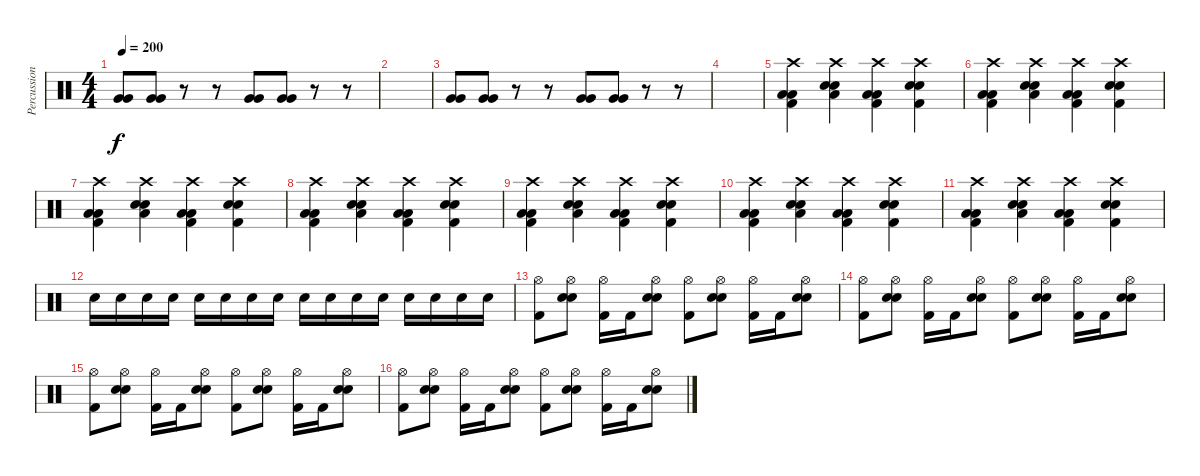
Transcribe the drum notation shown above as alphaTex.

\track ("Percussion" "Percussion") {instrument percussion}
\staff {score}
\articulation defaults
\ts (4 4)
\tempo 200
\clef neutral
\ks c
("Very Low Tom (hit)" "Very Low Tom (hit)").8{dy f} ("Very Low Tom (hit)" "Very Low Tom (hit)").8 r.8 r.8 ("Very Low Tom (hit)" "Very Low Tom (hit)").8 ("Very Low Tom (hit)" "Very Low Tom (hit)").8 r.8 r.8 |
|
("Very Low Tom (hit)" "Very Low Tom (hit)").8 ("Very Low Tom (hit)" "Very Low Tom (hit)").8 r.8 r.8 ("Very Low Tom (hit)" "Very Low Tom (hit)").8 ("Very Low Tom (hit)" "Very Low Tom (hit)").8 r.8 r.8 |
|
("Crash high (hit)" "Low Floor Tom (hit)" "Low Floor Tom (hit)" "Kick (hit) 2").4 ("Crash high (hit)" "Electric Snare (hit)" "Electric Snare (hit)" "Low Floor Tom (hit)").4 ("Crash high (hit)" "Low Floor Tom (hit)" "Low Floor Tom (hit)" "Kick (hit) 2").4 ("Crash high (hit)" "Electric Snare (hit)" "Electric Snare (hit)" "Kick (hit) 2").4 |
("Crash high (hit)" "Low Floor Tom (hit)" "Low Floor Tom (hit)" "Kick (hit) 2").4 ("Crash high (hit)" "Electric Snare (hit)" "Electric Snare (hit)" "Low Floor Tom (hit)").4 ("Crash high (hit)" "Low Floor Tom (hit)" "Low Floor Tom (hit)" "Kick (hit) 2").4 ("Crash high (hit)" "Electric Snare (hit)" "Electric Snare (hit)" "Kick (hit) 2").4 |
("Crash high (hit)" "Low Floor Tom (hit)" "Low Floor Tom (hit)" "Kick (hit) 2").4 ("Crash high (hit)" "Electric Snare (hit)" "Electric Snare (hit)" "Low Floor Tom (hit)").4 ("Crash high (hit)" "Low Floor Tom (hit)" "Low Floor Tom (hit)" "Kick (hit) 2").4 ("Crash high (hit)" "Electric Snare (hit)" "Electric Snare (hit)" "Kick (hit) 2").4 |
("Crash high (hit)" "Low Floor Tom (hit)" "Low Floor Tom (hit)" "Kick (hit) 2").4 ("Crash high (hit)" "Electric Snare (hit)" "Electric Snare (hit)" "Low Floor Tom (hit)").4 ("Crash high (hit)" "Low Floor Tom (hit)" "Low Floor Tom (hit)" "Kick (hit) 2").4 ("Crash high (hit)" "Electric Snare (hit)" "Electric Snare (hit)" "Kick (hit) 2").4 |
("Crash high (hit)" "Low Floor Tom (hit)" "Low Floor Tom (hit)" "Kick (hit) 2").4 ("Crash high (hit)" "Electric Snare (hit)" "Electric Snare (hit)" "Low Floor Tom (hit)").4 ("Crash high (hit)" "Low Floor Tom (hit)" "Low Floor Tom (hit)" "Kick (hit) 2").4 ("Crash high (hit)" "Electric Snare (hit)" "Electric Snare (hit)" "Kick (hit) 2").4 |
("Crash high (hit)" "Low Floor Tom (hit)" "Low Floor Tom (hit)" "Kick (hit) 2").4 ("Crash high (hit)" "Electric Snare (hit)" "Electric Snare (hit)" "Low Floor Tom (hit)").4 ("Crash high (hit)" "Low Floor Tom (hit)" "Low Floor Tom (hit)" "Kick (hit) 2").4 ("Crash high (hit)" "Electric Snare (hit)" "Electric Snare (hit)" "Kick (hit) 2").4 |
("Crash high (hit)" "Low Floor Tom (hit)" "Low Floor Tom (hit)" "Kick (hit) 2").4 ("Crash high (hit)" "Electric Snare (hit)" "Electric Snare (hit)" "Low Floor Tom (hit)").4 ("Crash high (hit)" "Low Floor Tom (hit)" "Low Floor Tom (hit)" "Kick (hit) 2").4 ("Crash high (hit)" "Electric Snare (hit)" "Electric Snare (hit)" "Kick (hit) 2").4 |
"Electric Snare (hit)".16 "Electric Snare (hit)".16 "Electric Snare (hit)".16 "Electric Snare (hit)".16 "Electric Snare (hit)".16 "Electric Snare (hit)".16 "Electric Snare (hit)".16 "Electric Snare (hit)".16 "Electric Snare (hit)".16 "Electric Snare (hit)".16 "Electric Snare (hit)".16 "Electric Snare (hit)".16 "Electric Snare (hit)".16 "Electric Snare (hit)".16 "Electric Snare (hit)".16 "Electric Snare (hit)".16 |
("Hi-Hat (open)" "Kick (hit) 2").8 ("Hi-Hat (open)" "Electric Snare (hit)" "Electric Snare (hit)").8 ("Hi-Hat (open)" "Kick (hit) 2").16 "Kick (hit) 2".16 ("Hi-Hat (open)" "Electric Snare (hit)" "Electric Snare (hit)").8 ("Hi-Hat (open)" "Kick (hit) 2").8 ("Hi-Hat (open)" "Electric Snare (hit)" "Electric Snare (hit)").8 ("Hi-Hat (open)" "Kick (hit) 2").16 "Kick (hit) 2".16 ("Hi-Hat (open)" "Electric Snare (hit)" "Electric Snare (hit)").8 |
("Hi-Hat (open)" "Kick (hit) 2").8 ("Hi-Hat (open)" "Electric Snare (hit)" "Electric Snare (hit)").8 ("Hi-Hat (open)" "Kick (hit) 2").16 "Kick (hit) 2".16 ("Hi-Hat (open)" "Electric Snare (hit)" "Electric Snare (hit)").8 ("Hi-Hat (open)" "Kick (hit) 2").8 ("Hi-Hat (open)" "Electric Snare (hit)" "Electric Snare (hit)").8 ("Hi-Hat (open)" "Kick (hit) 2").16 "Kick (hit) 2".16 ("Hi-Hat (open)" "Electric Snare (hit)" "Electric Snare (hit)").8 |
("Hi-Hat (open)" "Kick (hit) 2").8 ("Hi-Hat (open)" "Electric Snare (hit)" "Electric Snare (hit)").8 ("Hi-Hat (open)" "Kick (hit) 2").16 "Kick (hit) 2".16 ("Hi-Hat (open)" "Electric Snare (hit)" "Electric Snare (hit)").8 ("Hi-Hat (open)" "Kick (hit) 2").8 ("Hi-Hat (open)" "Electric Snare (hit)" "Electric Snare (hit)").8 ("Hi-Hat (open)" "Kick (hit) 2").16 "Kick (hit) 2".16 ("Hi-Hat (open)" "Electric Snare (hit)" "Electric Snare (hit)").8 |
("Hi-Hat (open)" "Kick (hit) 2").8 ("Hi-Hat (open)" "Electric Snare (hit)" "Electric Snare (hit)").8 ("Hi-Hat (open)" "Kick (hit) 2").16 "Kick (hit) 2".16 ("Hi-Hat (open)" "Electric Snare (hit)" "Electric Snare (hit)").8 ("Hi-Hat (open)" "Kick (hit) 2").8 ("Hi-Hat (open)" "Electric Snare (hit)" "Electric Snare (hit)").8 ("Hi-Hat (open)" "Kick (hit) 2").16 "Kick (hit) 2".16 ("Hi-Hat (open)" "Electric Snare (hit)" "Electric Snare (hit)").8
